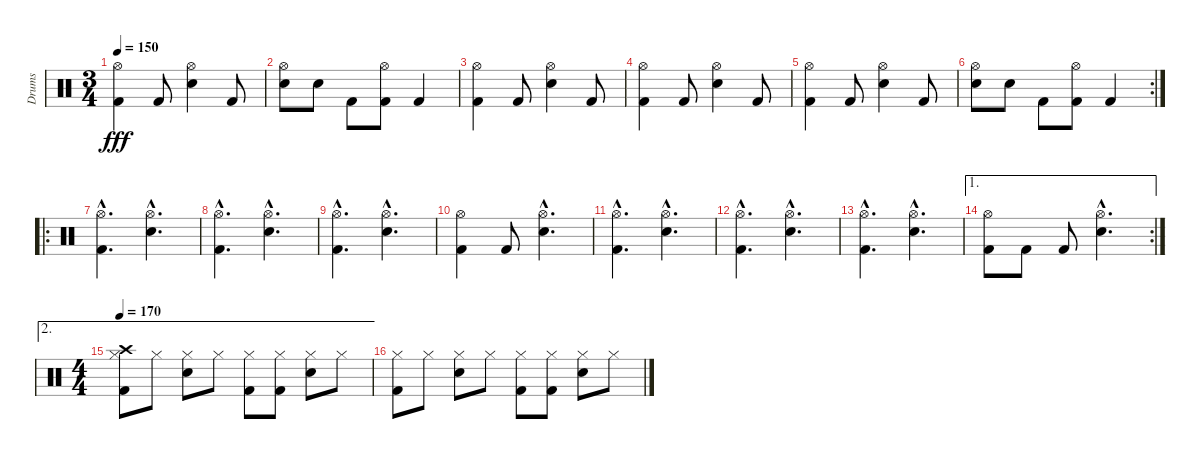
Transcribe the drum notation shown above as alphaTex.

\track ("Drums" "Drums") {instrument percussion}
\staff {score}
\articulation defaults
\ts (3 4)
\tempo 150
\clef neutral
\ks c
("Hi-Hat (open)" "Kick (hit) 2").4{dy fff} "Kick (hit) 2".8 ("Hi-Hat (open)" "Snare (hit) 2").4 "Kick (hit) 2".8 |
("Hi-Hat (open)" "Snare (hit) 2").8 "Snare (hit) 2".8 "Kick (hit) 2".8 ("Kick (hit) 2" "Hi-Hat (open)").8 "Kick (hit) 2".4 |
("Hi-Hat (open)" "Kick (hit) 2").4 "Kick (hit) 2".8 ("Hi-Hat (open)" "Snare (hit) 2").4 "Kick (hit) 2".8 |
("Hi-Hat (open)" "Kick (hit) 2").4 "Kick (hit) 2".8 ("Hi-Hat (open)" "Snare (hit) 2").4 "Kick (hit) 2".8 |
("Hi-Hat (open)" "Kick (hit) 2").4 "Kick (hit) 2".8 ("Hi-Hat (open)" "Snare (hit) 2").4 "Kick (hit) 2".8 |
\rc 2
("Hi-Hat (open)" "Snare (hit) 2").8 "Snare (hit) 2".8 "Kick (hit) 2".8 ("Kick (hit) 2" "Hi-Hat (open)").8 "Kick (hit) 2".4 |
\ro
("Hi-Hat (open)"{hac} "Kick (hit) 2"{hac}).4{d} ("Hi-Hat (open)"{hac} "Snare (hit) 2"{hac}).4{d} |
("Hi-Hat (open)"{hac} "Kick (hit) 2"{hac}).4{d} ("Hi-Hat (open)"{hac} "Snare (hit) 2"{hac}).4{d} |
("Hi-Hat (open)"{hac} "Kick (hit) 2"{hac}).4{d} ("Hi-Hat (open)"{hac} "Snare (hit) 2"{hac}).4{d} |
("Hi-Hat (open)" "Kick (hit) 2").4 "Kick (hit) 2".8 ("Hi-Hat (open)"{hac} "Snare (hit) 2"{hac}).4{d} |
("Hi-Hat (open)"{hac} "Kick (hit) 2"{hac}).4{d} ("Hi-Hat (open)"{hac} "Snare (hit) 2"{hac}).4{d} |
("Hi-Hat (open)"{hac} "Kick (hit) 2"{hac}).4{d} ("Hi-Hat (open)"{hac} "Snare (hit) 2"{hac}).4{d} |
("Hi-Hat (open)"{hac} "Kick (hit) 2"{hac}).4{d} ("Hi-Hat (open)"{hac} "Snare (hit) 2"{hac}).4{d} |
\ae 1
\rc 2
("Hi-Hat (open)" "Kick (hit) 2").8 "Kick (hit) 2".8 "Kick (hit) 2".8 ("Hi-Hat (open)"{hac} "Snare (hit) 2"{hac}).4{d} |
\ae 2
\ts (4 4)
\tempo 170
("Hi-Hat (closed)" "Kick (hit) 2" "Crash high (hit)").8 "Hi-Hat (closed)".8 ("Hi-Hat (closed)" "Snare (hit) 2").8 "Hi-Hat (closed)".8 ("Hi-Hat (closed)" "Kick (hit) 2").8 ("Hi-Hat (closed)" "Kick (hit) 2").8 ("Hi-Hat (closed)" "Snare (hit) 2").8 "Hi-Hat (closed)".8 |
("Hi-Hat (closed)" "Kick (hit) 2").8 "Hi-Hat (closed)".8 ("Hi-Hat (closed)" "Snare (hit) 2").8 "Hi-Hat (closed)".8 ("Hi-Hat (closed)" "Kick (hit) 2").8 ("Hi-Hat (closed)" "Kick (hit) 2").8 ("Hi-Hat (closed)" "Snare (hit) 2").8 "Hi-Hat (closed)".8
